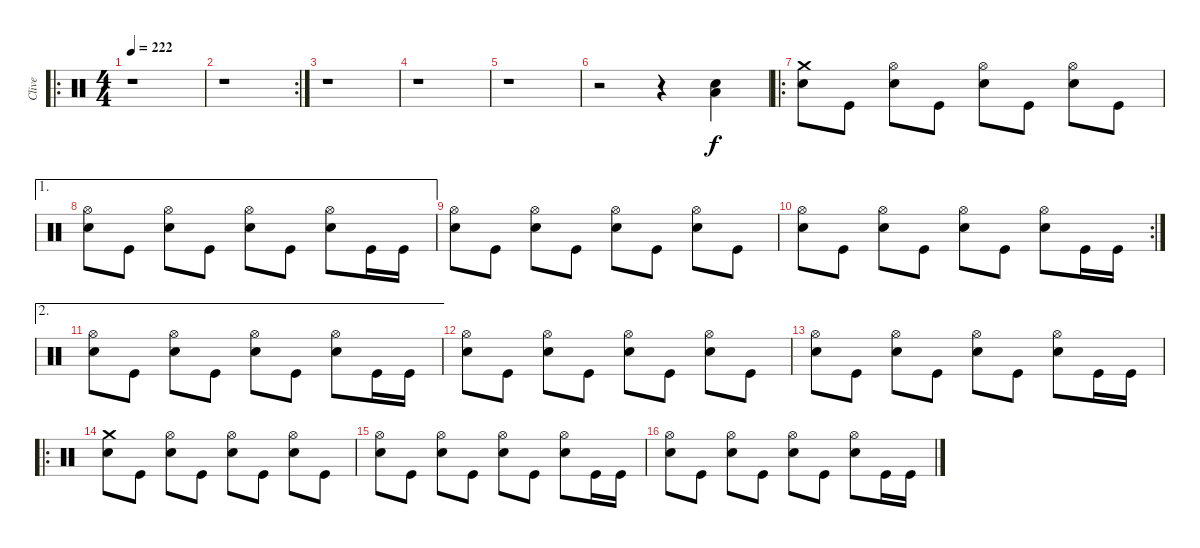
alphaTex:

\track ("Clive" "Clive") {instrument percussion}
\staff {score}
\articulation defaults
\ro
\ts (4 4)
\tempo 222
\clef neutral
\ks c
r.1{dy f} |
\rc 2
r.1 |
r.1 |
r.1 |
r.1 |
r.2 r.4 ("Snare (hit) 2" "Low Floor Tom (hit)").4 |
\ro
("Crash medium (hit)" "Snare (hit) 2").8 "Kick (hit)".8 ("Hi-Hat (open)" "Snare (hit) 2").8 "Kick (hit)".8 ("Hi-Hat (open)" "Snare (hit) 2").8 "Kick (hit)".8 ("Hi-Hat (open)" "Snare (hit) 2").8 "Kick (hit)".8 |
\ae 1
("Hi-Hat (open)" "Snare (hit) 2").8 "Kick (hit)".8 ("Hi-Hat (open)" "Snare (hit) 2").8 "Kick (hit)".8 ("Hi-Hat (open)" "Snare (hit) 2").8 "Kick (hit)".8 ("Hi-Hat (open)" "Snare (hit) 2").8 "Kick (hit)".16 "Kick (hit)".16 |
("Hi-Hat (open)" "Snare (hit) 2").8 "Kick (hit)".8 ("Hi-Hat (open)" "Snare (hit) 2").8 "Kick (hit)".8 ("Hi-Hat (open)" "Snare (hit) 2").8 "Kick (hit)".8 ("Hi-Hat (open)" "Snare (hit) 2").8 "Kick (hit)".8 |
\rc 2
("Hi-Hat (open)" "Snare (hit) 2").8 "Kick (hit)".8 ("Hi-Hat (open)" "Snare (hit) 2").8 "Kick (hit)".8 ("Hi-Hat (open)" "Snare (hit) 2").8 "Kick (hit)".8 ("Hi-Hat (open)" "Snare (hit) 2").8 "Kick (hit)".16 "Kick (hit)".16 |
\ae 2
("Hi-Hat (open)" "Snare (hit) 2").8 "Kick (hit)".8 ("Hi-Hat (open)" "Snare (hit) 2").8 "Kick (hit)".8 ("Hi-Hat (open)" "Snare (hit) 2").8 "Kick (hit)".8 ("Hi-Hat (open)" "Snare (hit) 2").8 "Kick (hit)".16 "Kick (hit)".16 |
("Hi-Hat (open)" "Snare (hit) 2").8 "Kick (hit)".8 ("Hi-Hat (open)" "Snare (hit) 2").8 "Kick (hit)".8 ("Hi-Hat (open)" "Snare (hit) 2").8 "Kick (hit)".8 ("Hi-Hat (open)" "Snare (hit) 2").8 "Kick (hit)".8 |
("Hi-Hat (open)" "Snare (hit) 2").8 "Kick (hit)".8 ("Hi-Hat (open)" "Snare (hit) 2").8 "Kick (hit)".8 ("Hi-Hat (open)" "Snare (hit) 2").8 "Kick (hit)".8 ("Hi-Hat (open)" "Snare (hit) 2").8 "Kick (hit)".16 "Kick (hit)".16 |
\ro
("Crash medium (hit)" "Snare (hit) 2").8 "Kick (hit)".8 ("Hi-Hat (open)" "Snare (hit) 2").8 "Kick (hit)".8 ("Hi-Hat (open)" "Snare (hit) 2").8 "Kick (hit)".8 ("Hi-Hat (open)" "Snare (hit) 2").8 "Kick (hit)".8 |
("Hi-Hat (open)" "Snare (hit) 2").8 "Kick (hit)".8 ("Hi-Hat (open)" "Snare (hit) 2").8 "Kick (hit)".8 ("Hi-Hat (open)" "Snare (hit) 2").8 "Kick (hit)".8 ("Hi-Hat (open)" "Snare (hit) 2").8 "Kick (hit)".16 "Kick (hit)".16 |
("Hi-Hat (open)" "Snare (hit) 2").8 "Kick (hit)".8 ("Hi-Hat (open)" "Snare (hit) 2").8 "Kick (hit)".8 ("Hi-Hat (open)" "Snare (hit) 2").8 "Kick (hit)".8 ("Hi-Hat (open)" "Snare (hit) 2").8 "Kick (hit)".16 "Kick (hit)".16
